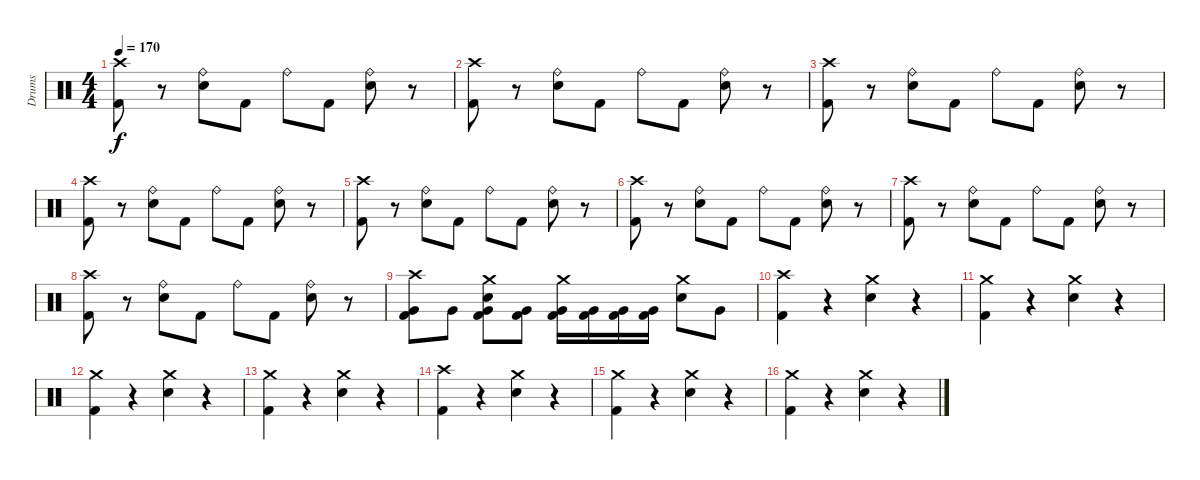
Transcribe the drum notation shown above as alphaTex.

\track ("Drums" "Drums") {instrument percussion}
\staff {score}
\articulation defaults
\ts (4 4)
\tempo 170
\clef neutral
\ks c
("Crash high (hit)" "Kick (hit) 2").8{dy f} r.8 ("Ride (bell)" "Snare (hit) 2").8 "Kick (hit) 2".8 "Ride (bell)".8 "Kick (hit) 2".8 ("Ride (bell)" "Snare (hit) 2").8 r.8 |
("Crash high (hit)" "Kick (hit) 2").8 r.8 ("Ride (bell)" "Snare (hit) 2").8 "Kick (hit) 2".8 "Ride (bell)".8 "Kick (hit) 2".8 ("Ride (bell)" "Snare (hit) 2").8 r.8 |
("Crash high (hit)" "Kick (hit) 2").8 r.8 ("Ride (bell)" "Snare (hit) 2").8 "Kick (hit) 2".8 "Ride (bell)".8 "Kick (hit) 2".8 ("Ride (bell)" "Snare (hit) 2").8 r.8 |
("Crash high (hit)" "Kick (hit) 2").8 r.8 ("Ride (bell)" "Snare (hit) 2").8 "Kick (hit) 2".8 "Ride (bell)".8 "Kick (hit) 2".8 ("Ride (bell)" "Snare (hit) 2").8 r.8 |
("Crash high (hit)" "Kick (hit) 2").8 r.8 ("Ride (bell)" "Snare (hit) 2").8 "Kick (hit) 2".8 "Ride (bell)".8 "Kick (hit) 2".8 ("Ride (bell)" "Snare (hit) 2").8 r.8 |
("Crash high (hit)" "Kick (hit) 2").8 r.8 ("Ride (bell)" "Snare (hit) 2").8 "Kick (hit) 2".8 "Ride (bell)".8 "Kick (hit) 2".8 ("Ride (bell)" "Snare (hit) 2").8 r.8 |
("Crash high (hit)" "Kick (hit) 2").8 r.8 ("Ride (bell)" "Snare (hit) 2").8 "Kick (hit) 2".8 "Ride (bell)".8 "Kick (hit) 2".8 ("Ride (bell)" "Snare (hit) 2").8 r.8 |
("Crash high (hit)" "Kick (hit) 2").8 r.8 ("Ride (bell)" "Snare (hit) 2").8 "Kick (hit) 2".8 "Ride (bell)".8 "Kick (hit) 2".8 ("Ride (bell)" "Snare (hit) 2").8 r.8 |
("Crash high (hit)" "Very Low Tom (hit)" "Kick (hit) 2").8 "Very Low Tom (hit)".8 ("Crash medium (hit)" "Snare (hit) 2" "Very Low Tom (hit)" "Kick (hit) 2").8 ("Very Low Tom (hit)" "Kick (hit) 2").8 ("Crash medium (hit)" "Very Low Tom (hit)" "Kick (hit) 2").16 ("Very Low Tom (hit)" "Kick (hit) 2").16 ("Very Low Tom (hit)" "Kick (hit) 2").16 ("Very Low Tom (hit)" "Kick (hit) 2").16 ("Crash medium (hit)" "Snare (hit) 2").8 "Very Low Tom (hit)".8 |
("Crash high (hit)" "Kick (hit) 2").4 r.4 ("Crash medium (hit)" "Snare (hit) 2").4 r.4 |
("Crash medium (hit)" "Kick (hit) 2").4 r.4 ("Crash medium (hit)" "Snare (hit) 2").4 r.4 |
("Crash medium (hit)" "Kick (hit) 2").4 r.4 ("Crash medium (hit)" "Snare (hit) 2").4 r.4 |
("Crash medium (hit)" "Kick (hit) 2").4 r.4 ("Crash medium (hit)" "Snare (hit) 2").4 r.4 |
("Crash high (hit)" "Kick (hit) 2").4 r.4 ("Crash medium (hit)" "Snare (hit) 2").4 r.4 |
("Crash medium (hit)" "Kick (hit) 2").4 r.4 ("Crash medium (hit)" "Snare (hit) 2").4 r.4 |
("Crash medium (hit)" "Kick (hit) 2").4 r.4 ("Crash medium (hit)" "Snare (hit) 2").4 r.4
